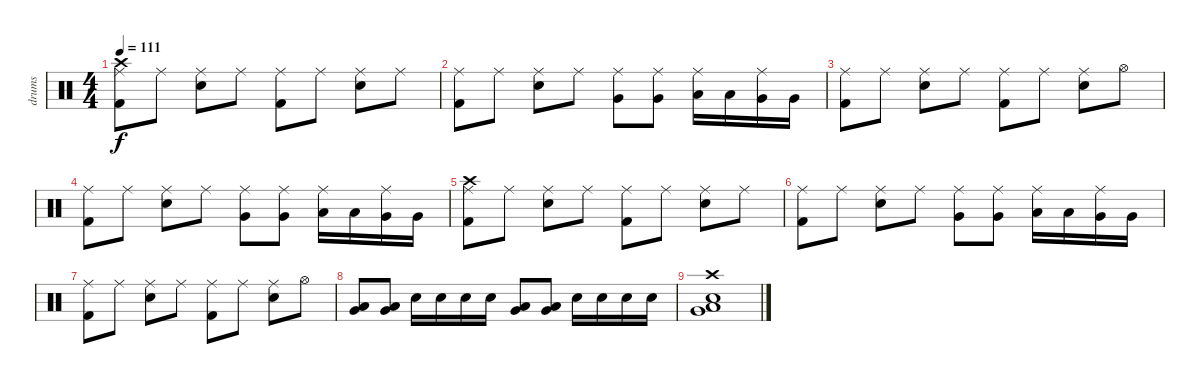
\track ("drums" "drums") {instrument percussion}
\staff {score}
\articulation defaults
\ts (4 4)
\tempo 111
\clef neutral
\ks c
("Kick (hit) 2" "Ride (middle)" "Crash high (hit)").8{dy f} "Ride (middle)".8 ("Electric Snare (hit)" "Ride (middle)").8 "Ride (middle)".8 ("Kick (hit) 2" "Ride (middle)").8 "Ride (middle)".8 ("Electric Snare (hit)" "Ride (middle)").8 "Ride (middle)".8 |
("Kick (hit) 2" "Ride (middle)").8 "Ride (middle)".8 ("Electric Snare (hit)" "Ride (middle)").8 "Ride (middle)".8 ("Very Low Tom (hit)" "Ride (middle)").8 ("Very Low Tom (hit)" "Ride (middle)").8 ("Low Floor Tom (hit)" "Ride (middle)").16 "Low Floor Tom (hit)".16 ("Very Low Tom (hit)" "Ride (middle)").16 "Very Low Tom (hit)".16 |
("Kick (hit) 2" "Ride (middle)").8 "Ride (middle)".8 ("Electric Snare (hit)" "Ride (middle)").8 "Ride (middle)".8 ("Kick (hit) 2" "Ride (middle)").8 "Ride (middle)".8 ("Electric Snare (hit)" "Ride (middle)").8 "Hi-Hat (open)".8 |
("Kick (hit) 2" "Ride (middle)").8 "Ride (middle)".8 ("Electric Snare (hit)" "Ride (middle)").8 "Ride (middle)".8 ("Very Low Tom (hit)" "Ride (middle)").8 ("Very Low Tom (hit)" "Ride (middle)").8 ("Low Floor Tom (hit)" "Ride (middle)").16 "Low Floor Tom (hit)".16 ("Very Low Tom (hit)" "Ride (middle)").16 "Very Low Tom (hit)".16 |
("Kick (hit) 2" "Ride (middle)" "Crash high (hit)").8 "Ride (middle)".8 ("Electric Snare (hit)" "Ride (middle)").8 "Ride (middle)".8 ("Kick (hit) 2" "Ride (middle)").8 "Ride (middle)".8 ("Electric Snare (hit)" "Ride (middle)").8 "Ride (middle)".8 |
("Kick (hit) 2" "Ride (middle)").8 "Ride (middle)".8 ("Electric Snare (hit)" "Ride (middle)").8 "Ride (middle)".8 ("Very Low Tom (hit)" "Ride (middle)").8 ("Very Low Tom (hit)" "Ride (middle)").8 ("Low Floor Tom (hit)" "Ride (middle)").16 "Low Floor Tom (hit)".16 ("Very Low Tom (hit)" "Ride (middle)").16 "Very Low Tom (hit)".16 |
("Kick (hit) 2" "Ride (middle)").8 "Ride (middle)".8 ("Electric Snare (hit)" "Ride (middle)").8 "Ride (middle)".8 ("Kick (hit) 2" "Ride (middle)").8 "Ride (middle)".8 ("Electric Snare (hit)" "Ride (middle)").8 "Hi-Hat (open)".8 |
("Low Floor Tom (hit)" "Very Low Tom (hit)").8 ("Low Floor Tom (hit)" "Very Low Tom (hit)").8 "Electric Snare (hit)".16 "Electric Snare (hit)".16 "Electric Snare (hit)".16 "Electric Snare (hit)".16 ("Very Low Tom (hit)" "Low Floor Tom (hit)").8 ("Very Low Tom (hit)" "Low Floor Tom (hit)").8 "Electric Snare (hit)".16 "Electric Snare (hit)".16 "Electric Snare (hit)".16 "Electric Snare (hit)".16 |
("Electric Snare (hit)" "Low Floor Tom (hit)" "Very Low Tom (hit)" "Crash high (hit)").1
